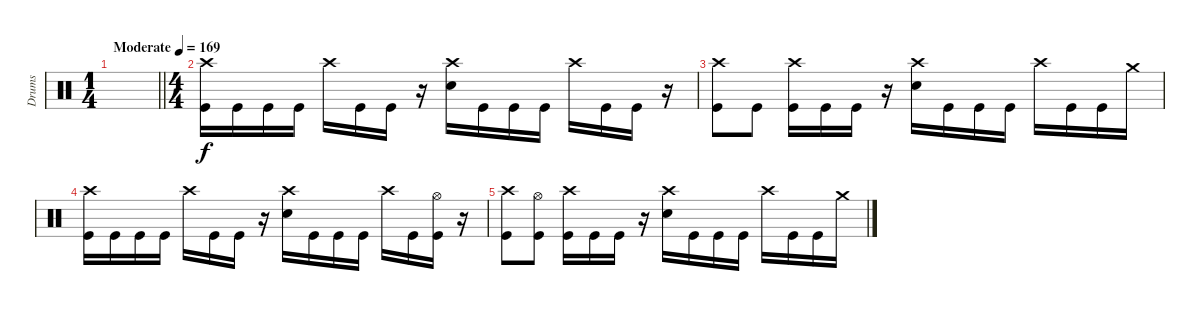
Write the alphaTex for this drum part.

\track ("Drums" "Drums") {instrument percussion}
\staff
\articulation defaults
\ts (1 4)
\tempo (169 "Moderate")
\clef neutral
\barLineRight lightlight
\ks c
|
\ts (4 4)
("Crash high (hit)" "Kick (hit)").16 "Kick (hit)".16 "Kick (hit)".16 "Kick (hit)".16 "Crash high (hit)".16 "Kick (hit)".16 "Kick (hit)".16 r.16 ("Crash high (hit)" "Electric Snare (hit)").16 "Kick (hit)".16 "Kick (hit)".16 "Kick (hit)".16 "Crash high (hit)".16 "Kick (hit)".16 "Kick (hit)".16 r.16 |
("Crash high (hit)" "Kick (hit)").8 "Kick (hit)".8 ("Crash high (hit)" "Kick (hit)").16 "Kick (hit)".16 "Kick (hit)".16 r.16 ("Crash high (hit)" "Electric Snare (hit)").16 "Kick (hit)".16 "Kick (hit)".16 "Kick (hit)".16 "Crash high (hit)".16 "Kick (hit)".16 "Kick (hit)".16 "Crash medium (hit)".16 |
("Crash high (hit)" "Kick (hit)").16 "Kick (hit)".16 "Kick (hit)".16 "Kick (hit)".16 "Crash high (hit)".16 "Kick (hit)".16 "Kick (hit)".16 r.16 ("Crash high (hit)" "Electric Snare (hit)").16 "Kick (hit)".16 "Kick (hit)".16 "Kick (hit)".16 "Crash high (hit)".16 "Kick (hit)".16 ("Hi-Hat (open)" "Kick (hit)").16 r.16 |
("Crash high (hit)" "Kick (hit)").8 ("Hi-Hat (open)" "Kick (hit)").8 ("Crash high (hit)" "Kick (hit)").16 "Kick (hit)".16 "Kick (hit)".16 r.16 ("Crash high (hit)" "Electric Snare (hit)").16 "Kick (hit)".16 "Kick (hit)".16 "Kick (hit)".16 "Crash high (hit)".16 "Kick (hit)".16 "Kick (hit)".16 "Crash medium (hit)".16
